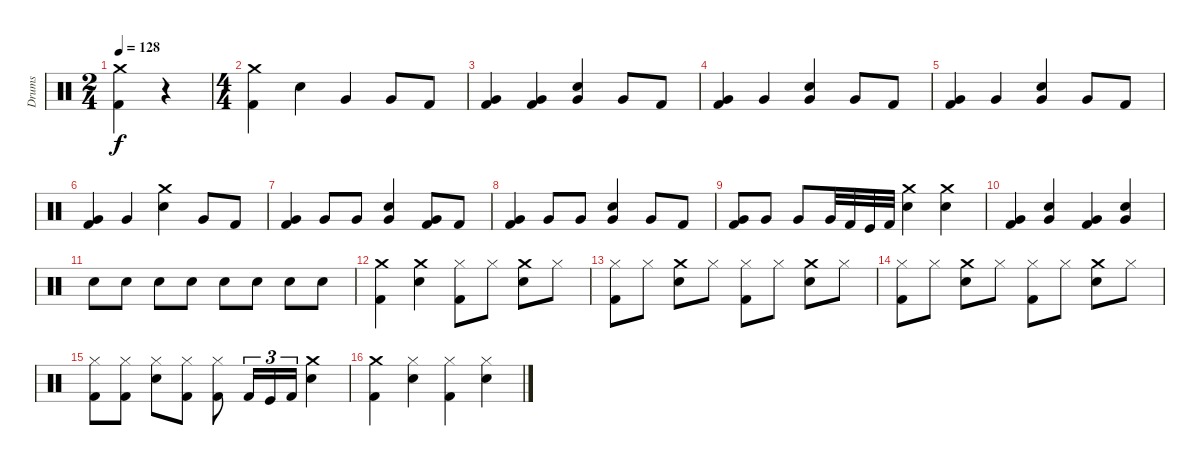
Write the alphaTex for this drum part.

\track ("Drums" "Drums") {instrument percussion}
\staff {score}
\articulation defaults
\ts (2 4)
\tempo 128
\clef neutral
\ks c
("Crash medium (hit)" "Kick (hit) 2").4{dy f} r.4 |
\ts (4 4)
("Crash medium (hit)" "Kick (hit) 2").4 "Snare (hit) 2".4 "Very Low Tom (hit)".4 "Very Low Tom (hit)".8 "Kick (hit) 2".8 |
("Kick (hit) 2" "Very Low Tom (hit)").4 ("Kick (hit) 2" "Very Low Tom (hit)").4 ("Snare (hit) 2" "Very Low Tom (hit)").4 "Very Low Tom (hit)".8 "Kick (hit) 2".8 |
("Kick (hit) 2" "Very Low Tom (hit)").4 "Very Low Tom (hit)".4 ("Snare (hit) 2" "Very Low Tom (hit)").4 "Very Low Tom (hit)".8 "Kick (hit) 2".8 |
("Kick (hit) 2" "Very Low Tom (hit)").4 "Very Low Tom (hit)".4 ("Snare (hit) 2" "Very Low Tom (hit)").4 "Very Low Tom (hit)".8 "Kick (hit) 2".8 |
("Kick (hit) 2" "Very Low Tom (hit)").4 "Very Low Tom (hit)".4 ("Crash medium (hit)" "Snare (hit) 2").4 "Very Low Tom (hit)".8 "Kick (hit) 2".8 |
("Kick (hit) 2" "Very Low Tom (hit)").4 "Very Low Tom (hit)".8 "Very Low Tom (hit)".8 ("Snare (hit) 2" "Very Low Tom (hit)").4 ("Very Low Tom (hit)" "Kick (hit) 2").8 "Kick (hit) 2".8 |
("Kick (hit) 2" "Very Low Tom (hit)").4 "Very Low Tom (hit)".8 "Very Low Tom (hit)".8 ("Snare (hit) 2" "Very Low Tom (hit)").4 "Very Low Tom (hit)".8 "Kick (hit) 2".8 |
("Kick (hit) 2" "Very Low Tom (hit)").8 "Very Low Tom (hit)".8 "Very Low Tom (hit)".8 "Very Low Tom (hit)".32 "Kick (hit) 2".32 "Kick (hit)".32 "Kick (hit) 2".32 ("Crash medium (hit)" "Snare (hit) 2").4 ("Crash medium (hit)" "Snare (hit) 2").4 |
("Very Low Tom (hit)" "Kick (hit) 2").4 ("Snare (hit) 2" "Very Low Tom (hit)").4 ("Very Low Tom (hit)" "Kick (hit) 2").4 ("Snare (hit) 2" "Very Low Tom (hit)").4 |
"Snare (hit) 2".8 "Snare (hit) 2".8 "Snare (hit) 2".8 "Snare (hit) 2".8 "Snare (hit) 2".8 "Snare (hit) 2".8 "Snare (hit) 2".8 "Snare (hit) 2".8 |
("Crash medium (hit)" "Kick (hit) 2").4 ("Crash medium (hit)" "Snare (hit) 2").4 ("Kick (hit) 2" "Hi-Hat (closed)").8 "Hi-Hat (closed)".8 ("Crash medium (hit)" "Snare (hit) 2").8 "Hi-Hat (closed)".8 |
("Hi-Hat (closed)" "Kick (hit) 2").8 "Hi-Hat (closed)".8 ("Crash medium (hit)" "Snare (hit) 2").8 "Hi-Hat (closed)".8 ("Hi-Hat (closed)" "Kick (hit) 2").8 "Hi-Hat (closed)".8 ("Crash medium (hit)" "Snare (hit) 2").8 "Hi-Hat (closed)".8 |
("Hi-Hat (closed)" "Kick (hit) 2").8 "Hi-Hat (closed)".8 ("Crash medium (hit)" "Snare (hit) 2").8 "Hi-Hat (closed)".8 ("Hi-Hat (closed)" "Kick (hit) 2").8 "Hi-Hat (closed)".8 ("Crash medium (hit)" "Snare (hit) 2").8 "Hi-Hat (closed)".8 |
("Hi-Hat (closed)" "Kick (hit) 2").8 ("Hi-Hat (closed)" "Kick (hit) 2").8 ("Snare (hit) 2" "Hi-Hat (closed)").8 ("Hi-Hat (closed)" "Kick (hit) 2").8 ("Hi-Hat (closed)" "Kick (hit) 2").8 "Kick (hit) 2".16{tu (3 2)} "Kick (hit)".16{tu (3 2)} "Kick (hit) 2".16{tu (3 2)} ("Crash medium (hit)" "Snare (hit) 2").4 |
("Crash medium (hit)" "Kick (hit) 2").4 ("Snare (hit) 2" "Hi-Hat (closed)").4 ("Hi-Hat (closed)" "Kick (hit) 2").4 ("Snare (hit) 2" "Hi-Hat (closed)").4
